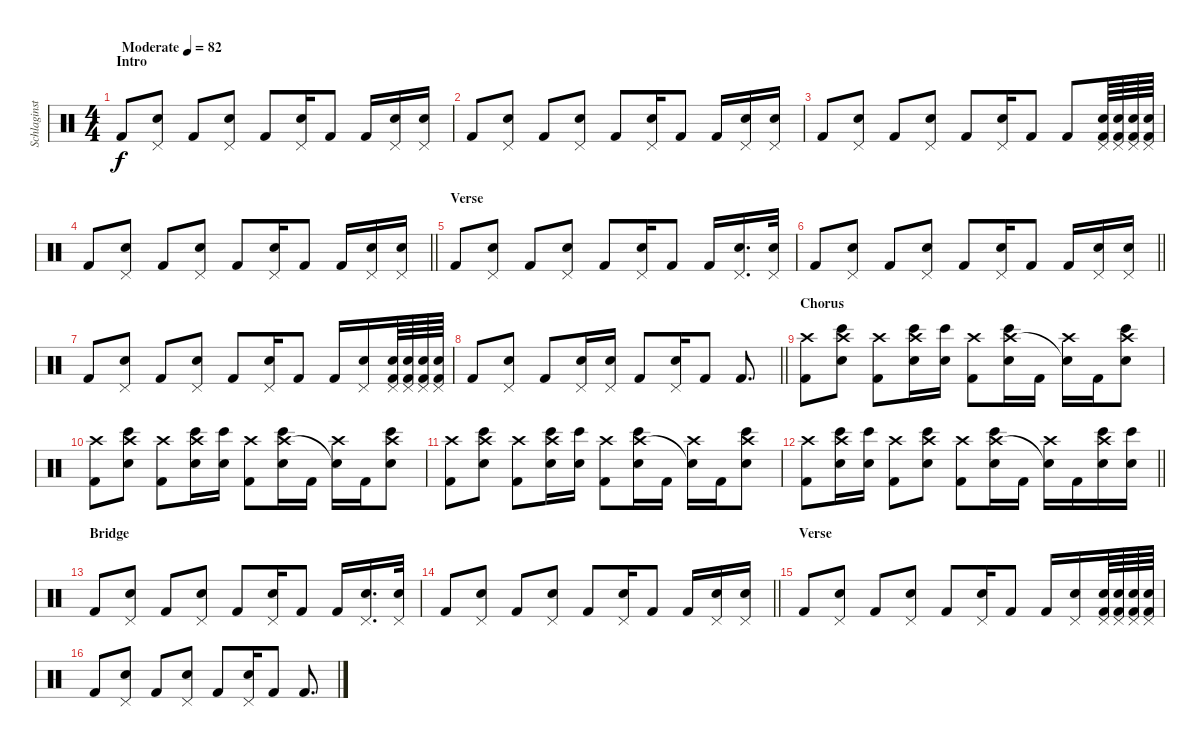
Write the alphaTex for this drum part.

\track ("Schlaginstrumente - Auswahl" "Schlaginst") {instrument percussion}
\staff {score}
\articulation defaults
\ts (4 4)
\section ("" "Intro")
\tempo (82 "Moderate")
\clef neutral
\ks c "Kick (hit) 2".8{dy f}
("Pedal Hi-Hat (hit)" "Electric Snare (hit)").8 "Kick (hit) 2".8 ("Pedal Hi-Hat (hit)" "Electric Snare (hit)").8 "Kick (hit) 2".8 ("Pedal Hi-Hat (hit)" "Electric Snare (hit)").16 "Kick (hit) 2".8 "Kick (hit) 2".16 ("Pedal Hi-Hat (hit)" "Electric Snare (hit)").16 ("Pedal Hi-Hat (hit)" "Electric Snare (hit)").16 |
"Kick (hit) 2".8 ("Pedal Hi-Hat (hit)" "Electric Snare (hit)").8 "Kick (hit) 2".8 ("Pedal Hi-Hat (hit)" "Electric Snare (hit)").8 "Kick (hit) 2".8 ("Pedal Hi-Hat (hit)" "Electric Snare (hit)").16 "Kick (hit) 2".8 "Kick (hit) 2".16 ("Pedal Hi-Hat (hit)" "Electric Snare (hit)").16 ("Pedal Hi-Hat (hit)" "Electric Snare (hit)").16 |
"Kick (hit) 2".8 ("Pedal Hi-Hat (hit)" "Electric Snare (hit)").8 "Kick (hit) 2".8 ("Pedal Hi-Hat (hit)" "Electric Snare (hit)").8 "Kick (hit) 2".8 ("Pedal Hi-Hat (hit)" "Electric Snare (hit)").16 "Kick (hit) 2".8 "Kick (hit) 2".8 ("Pedal Hi-Hat (hit)" "Electric Snare (hit)" "Kick (hit) 2").64 ("Pedal Hi-Hat (hit)" "Electric Snare (hit)" "Kick (hit) 2").64 ("Pedal Hi-Hat (hit)" "Electric Snare (hit)" "Kick (hit) 2").64 ("Pedal Hi-Hat (hit)" "Electric Snare (hit)" "Kick (hit) 2").64 |
\barLineRight lightlight "Kick (hit) 2".8
("Pedal Hi-Hat (hit)" "Electric Snare (hit)").8 "Kick (hit) 2".8 ("Pedal Hi-Hat (hit)" "Electric Snare (hit)").8 "Kick (hit) 2".8 ("Pedal Hi-Hat (hit)" "Electric Snare (hit)").16 "Kick (hit) 2".8 "Kick (hit) 2".16 ("Pedal Hi-Hat (hit)" "Electric Snare (hit)").16 ("Pedal Hi-Hat (hit)" "Electric Snare (hit)").16 |
\section ("" "Verse")
"Kick (hit) 2".8 ("Pedal Hi-Hat (hit)" "Electric Snare (hit)").8 "Kick (hit) 2".8 ("Pedal Hi-Hat (hit)" "Electric Snare (hit)").8 "Kick (hit) 2".8 ("Pedal Hi-Hat (hit)" "Electric Snare (hit)").16 "Kick (hit) 2".8 "Kick (hit) 2".16 ("Pedal Hi-Hat (hit)" "Electric Snare (hit)").16{d} ("Pedal Hi-Hat (hit)" "Electric Snare (hit)").32 |
\barLineRight lightlight "Kick (hit) 2".8
("Pedal Hi-Hat (hit)" "Electric Snare (hit)").8 "Kick (hit) 2".8 ("Pedal Hi-Hat (hit)" "Electric Snare (hit)").8 "Kick (hit) 2".8 ("Pedal Hi-Hat (hit)" "Electric Snare (hit)").16 "Kick (hit) 2".8 "Kick (hit) 2".16 ("Pedal Hi-Hat (hit)" "Electric Snare (hit)").16 ("Pedal Hi-Hat (hit)" "Electric Snare (hit)").16 |
"Kick (hit) 2".8 ("Pedal Hi-Hat (hit)" "Electric Snare (hit)").8 "Kick (hit) 2".8 ("Pedal Hi-Hat (hit)" "Electric Snare (hit)").8 "Kick (hit) 2".8 ("Pedal Hi-Hat (hit)" "Electric Snare (hit)").16 "Kick (hit) 2".8 "Kick (hit) 2".16 ("Pedal Hi-Hat (hit)" "Electric Snare (hit)").16 ("Pedal Hi-Hat (hit)" "Electric Snare (hit)" "Kick (hit) 2").64 ("Pedal Hi-Hat (hit)" "Electric Snare (hit)" "Kick (hit) 2").64 ("Pedal Hi-Hat (hit)" "Electric Snare (hit)" "Kick (hit) 2").64 ("Pedal Hi-Hat (hit)" "Electric Snare (hit)" "Kick (hit) 2").64 |
\barLineRight lightlight "Kick (hit) 2".8
("Pedal Hi-Hat (hit)" "Electric Snare (hit)").8 "Kick (hit) 2".8 ("Pedal Hi-Hat (hit)" "Electric Snare (hit)").16 ("Pedal Hi-Hat (hit)" "Electric Snare (hit)").16 "Kick (hit) 2".8 ("Pedal Hi-Hat (hit)" "Electric Snare (hit)").16 "Kick (hit) 2".8 "Kick (hit) 2".8{d} |
\section ("" "Chorus")
("Crash high (hit)" "Kick (hit) 2").8 ("Bongo High (hit)" "Crash high (hit)" "Electric Snare (hit)").8 ("Crash high (hit)" "Kick (hit) 2").8 ("Bongo High (hit)" "Crash high (hit)" "Electric Snare (hit)").16 ("Bongo High (hit)" "Electric Snare (hit)").16 ("Crash high (hit)" "Kick (hit) 2").8 ("Bongo High (hit)" "Crash high (hit)" "Electric Snare (hit)").16 "Kick (hit) 2".16 ("Crash high (hit)" "Snare (hit)"{t}).16 "Kick (hit) 2".16 ("Bongo High (hit)" "Crash high (hit)" "Electric Snare (hit)").8 |
("Crash high (hit)" "Kick (hit) 2").8 ("Bongo High (hit)" "Crash high (hit)" "Electric Snare (hit)").8 ("Crash high (hit)" "Kick (hit) 2").8 ("Bongo High (hit)" "Crash high (hit)" "Electric Snare (hit)").16 ("Bongo High (hit)" "Electric Snare (hit)").16 ("Crash high (hit)" "Kick (hit) 2").8 ("Bongo High (hit)" "Crash high (hit)" "Electric Snare (hit)").16 "Kick (hit) 2".16 ("Crash high (hit)" "Snare (hit)"{t}).16 "Kick (hit) 2".16 ("Bongo High (hit)" "Crash high (hit)" "Electric Snare (hit)").8 |
("Crash high (hit)" "Kick (hit) 2").8 ("Bongo High (hit)" "Crash high (hit)" "Electric Snare (hit)").8 ("Crash high (hit)" "Kick (hit) 2").8 ("Bongo High (hit)" "Crash high (hit)" "Electric Snare (hit)").16 ("Bongo High (hit)" "Electric Snare (hit)").16 ("Crash high (hit)" "Kick (hit) 2").8 ("Bongo High (hit)" "Crash high (hit)" "Electric Snare (hit)").16 "Kick (hit) 2".16 ("Crash high (hit)" "Snare (hit)"{t}).16 "Kick (hit) 2".16 ("Bongo High (hit)" "Crash high (hit)" "Electric Snare (hit)").8 |
\barLineRight lightlight
("Crash high (hit)" "Kick (hit) 2").8 ("Bongo High (hit)" "Crash high (hit)" "Electric Snare (hit)").16 ("Bongo High (hit)" "Electric Snare (hit)").16 ("Crash high (hit)" "Kick (hit) 2").8 ("Bongo High (hit)" "Crash high (hit)" "Electric Snare (hit)").8 ("Crash high (hit)" "Kick (hit) 2").8 ("Bongo High (hit)" "Crash high (hit)" "Electric Snare (hit)").16 "Kick (hit) 2".16 ("Crash high (hit)" "Snare (hit)"{t}).16 "Kick (hit) 2".16 ("Bongo High (hit)" "Crash high (hit)" "Electric Snare (hit)").16 ("Bongo High (hit)" "Electric Snare (hit)").16 |
\section ("" "Bridge")
"Kick (hit) 2".8 ("Pedal Hi-Hat (hit)" "Electric Snare (hit)").8 "Kick (hit) 2".8 ("Pedal Hi-Hat (hit)" "Electric Snare (hit)").8 "Kick (hit) 2".8 ("Pedal Hi-Hat (hit)" "Electric Snare (hit)").16 "Kick (hit) 2".8 "Kick (hit) 2".16 ("Pedal Hi-Hat (hit)" "Electric Snare (hit)").16{d} ("Pedal Hi-Hat (hit)" "Electric Snare (hit)").32 |
\barLineRight lightlight "Kick (hit) 2".8
("Pedal Hi-Hat (hit)" "Electric Snare (hit)").8 "Kick (hit) 2".8 ("Pedal Hi-Hat (hit)" "Electric Snare (hit)").8 "Kick (hit) 2".8 ("Pedal Hi-Hat (hit)" "Electric Snare (hit)").16 "Kick (hit) 2".8 "Kick (hit) 2".16 ("Pedal Hi-Hat (hit)" "Electric Snare (hit)").16 ("Pedal Hi-Hat (hit)" "Electric Snare (hit)").16 |
\section ("" "Verse")
"Kick (hit) 2".8 ("Pedal Hi-Hat (hit)" "Electric Snare (hit)").8 "Kick (hit) 2".8 ("Pedal Hi-Hat (hit)" "Electric Snare (hit)").8 "Kick (hit) 2".8 ("Pedal Hi-Hat (hit)" "Electric Snare (hit)").16 "Kick (hit) 2".8 "Kick (hit) 2".16 ("Pedal Hi-Hat (hit)" "Electric Snare (hit)").16 ("Pedal Hi-Hat (hit)" "Electric Snare (hit)" "Kick (hit) 2").64 ("Pedal Hi-Hat (hit)" "Electric Snare (hit)" "Kick (hit) 2").64 ("Pedal Hi-Hat (hit)" "Electric Snare (hit)" "Kick (hit) 2").64 ("Pedal Hi-Hat (hit)" "Electric Snare (hit)" "Kick (hit) 2").64 |
"Kick (hit) 2".8 ("Pedal Hi-Hat (hit)" "Electric Snare (hit)").8 "Kick (hit) 2".8 ("Pedal Hi-Hat (hit)" "Electric Snare (hit)").8 "Kick (hit) 2".8 ("Pedal Hi-Hat (hit)" "Electric Snare (hit)").16 "Kick (hit) 2".8 "Kick (hit) 2".8{d}
